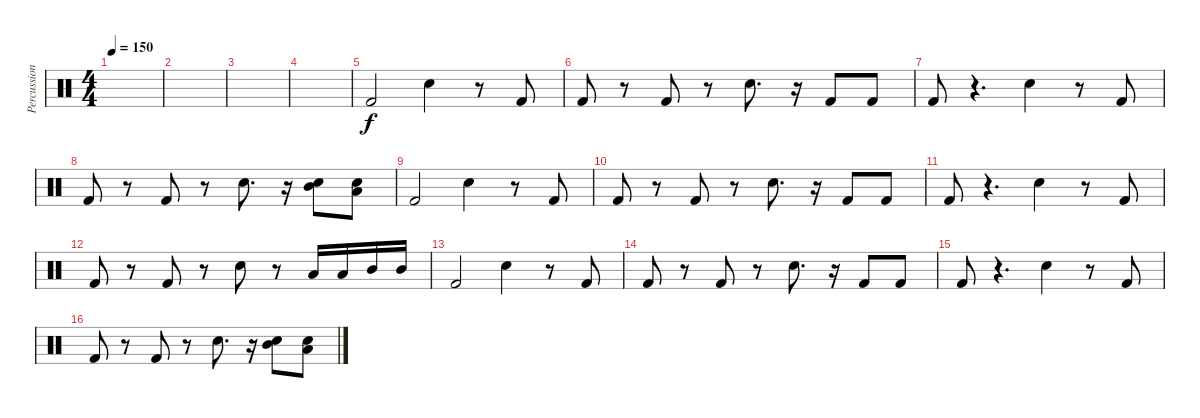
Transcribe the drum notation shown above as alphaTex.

\track ("Percussion" "Percussion") {instrument percussion}
\staff {score}
\articulation defaults
\ts (4 4)
\tempo 150
\clef neutral
\ks c
|
|
|
|
"Kick (hit) 2".2 "Electric Snare (hit)".4 r.8 "Kick (hit) 2".8 |
"Kick (hit) 2".8 r.8 "Kick (hit) 2".8 r.8 "Electric Snare (hit)".8{d} r.16 "Kick (hit) 2".8 "Kick (hit) 2".8 |
"Kick (hit) 2".8 r.4{d} "Electric Snare (hit)".4 r.8 "Kick (hit) 2".8 |
"Kick (hit) 2".8 r.8 "Kick (hit) 2".8 r.8 "Electric Snare (hit)".8{d} r.16 ("Electric Snare (hit)" "Mid Tom (hit)").8 ("Electric Snare (hit)" "Low Tom (hit)").8 |
"Kick (hit) 2".2 "Electric Snare (hit)".4 r.8 "Kick (hit) 2".8 |
"Kick (hit) 2".8 r.8 "Kick (hit) 2".8 r.8 "Electric Snare (hit)".8{d} r.16 "Kick (hit) 2".8 "Kick (hit) 2".8 |
"Kick (hit) 2".8 r.4{d} "Electric Snare (hit)".4 r.8 "Kick (hit) 2".8 |
"Kick (hit) 2".8 r.8 "Kick (hit) 2".8 r.8 "Electric Snare (hit)".8 r.8 "Low Tom (hit)".16 "Low Tom (hit)".16 "Mid Tom (hit)".16 "Mid Tom (hit)".16 |
"Kick (hit) 2".2 "Electric Snare (hit)".4 r.8 "Kick (hit) 2".8 |
"Kick (hit) 2".8 r.8 "Kick (hit) 2".8 r.8 "Electric Snare (hit)".8{d} r.16 "Kick (hit) 2".8 "Kick (hit) 2".8 |
"Kick (hit) 2".8 r.4{d} "Electric Snare (hit)".4 r.8 "Kick (hit) 2".8 |
"Kick (hit) 2".8 r.8 "Kick (hit) 2".8 r.8 "Electric Snare (hit)".8{d} r.16 ("Electric Snare (hit)" "Mid Tom (hit)").8 ("Electric Snare (hit)" "Low Tom (hit)").8
